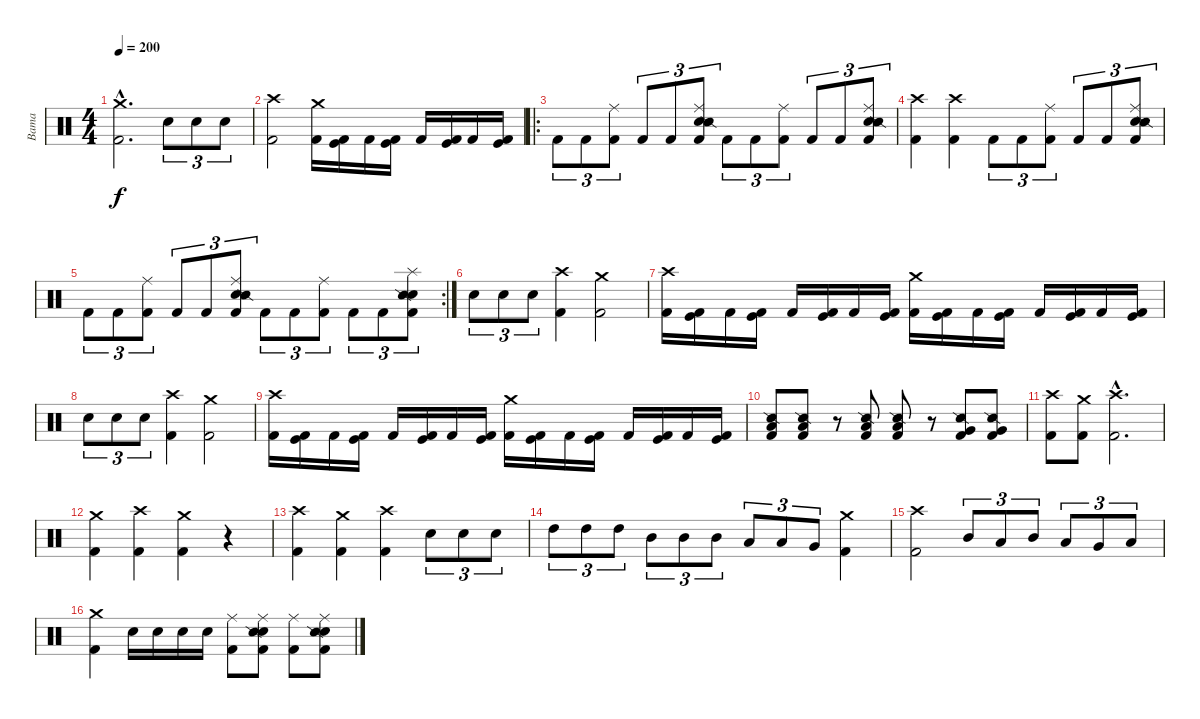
\track ("Bama" "Bama") {instrument percussion}
\staff {score}
\articulation defaults
\ts (4 4)
\tempo 200
\clef neutral
\ks c
("Crash medium (hit)"{hac} "Kick (hit) 2"{hac}).2{d dy f} "Electric Snare (hit)".8{tu (3 2)} "Electric Snare (hit)".8{tu (3 2)} "Electric Snare (hit)".8{tu (3 2)} |
("Crash high (hit)" "Kick (hit) 2").2 ("Crash medium (hit)" "Kick (hit) 2").16 ("Kick (hit)" "Kick (hit) 2").16 "Kick (hit) 2".16 ("Kick (hit)" "Kick (hit) 2").16 "Kick (hit) 2".16 ("Kick (hit)" "Kick (hit) 2").16 "Kick (hit) 2".16 ("Kick (hit)" "Kick (hit) 2").16 |
\ro "Kick (hit) 2".8{tu (3 2)} "Kick (hit) 2".8{tu (3 2)}
("Ride (middle)" "Kick (hit) 2").8{tu (3 2)} "Kick (hit) 2".8{tu (3 2)} "Kick (hit) 2".8{tu (3 2)} ("Ride (middle)" "Electric Snare (hit)" "Snare (side stick) 2" "Kick (hit) 2").8{tu (3 2)} "Kick (hit) 2".8{tu (3 2)} "Kick (hit) 2".8{tu (3 2)} ("Ride (middle)" "Kick (hit) 2").8{tu (3 2)} "Kick (hit) 2".8{tu (3 2)} "Kick (hit) 2".8{tu (3 2)} ("Ride (middle)" "Electric Snare (hit)" "Snare (side stick) 2" "Kick (hit) 2").8{tu (3 2)} |
("Crash high (hit)" "Kick (hit) 2").4 ("Crash high (hit)" "Kick (hit) 2").4 "Kick (hit) 2".8{tu (3 2)} "Kick (hit) 2".8{tu (3 2)} ("Ride (middle)" "Kick (hit) 2").8{tu (3 2)} "Kick (hit) 2".8{tu (3 2)} "Kick (hit) 2".8{tu (3 2)} ("Ride (middle)" "Electric Snare (hit)" "Snare (side stick) 2" "Kick (hit) 2").8{tu (3 2)} |
\rc 2 "Kick (hit) 2".8{tu (3 2)} "Kick (hit) 2".8{tu (3 2)}
("Ride (middle)" "Kick (hit) 2").8{tu (3 2)} "Kick (hit) 2".8{tu (3 2)} "Kick (hit) 2".8{tu (3 2)} ("Ride (middle)" "Electric Snare (hit)" "Snare (side stick) 2" "Kick (hit) 2").8{tu (3 2)} "Kick (hit) 2".8{tu (3 2)} "Kick (hit) 2".8{tu (3 2)} ("Ride (middle)" "Kick (hit) 2").8{tu (3 2)} "Kick (hit) 2".8{tu (3 2)} "Kick (hit) 2".8{tu (3 2)} ("Splash (hit)" "Electric Snare (hit)" "Snare (side stick) 2" "Kick (hit) 2").8{tu (3 2)} |
"Electric Snare (hit)".8{tu (3 2)} "Electric Snare (hit)".8{tu (3 2)} "Electric Snare (hit)".8{tu (3 2)} ("Crash high (hit)" "Kick (hit) 2").4 ("Crash medium (hit)" "Kick (hit) 2").2 |
("Crash high (hit)" "Kick (hit) 2").16 ("Kick (hit)" "Kick (hit) 2").16 "Kick (hit) 2".16 ("Kick (hit)" "Kick (hit) 2").16 "Kick (hit) 2".16 ("Kick (hit)" "Kick (hit) 2").16 "Kick (hit) 2".16 ("Kick (hit)" "Kick (hit) 2").16 ("Crash medium (hit)" "Kick (hit) 2").16 ("Kick (hit)" "Kick (hit) 2").16 "Kick (hit) 2".16 ("Kick (hit)" "Kick (hit) 2").16 "Kick (hit) 2".16 ("Kick (hit)" "Kick (hit) 2").16 "Kick (hit) 2".16 ("Kick (hit)" "Kick (hit) 2").16 |
"Electric Snare (hit)".8{tu (3 2)} "Electric Snare (hit)".8{tu (3 2)} "Electric Snare (hit)".8{tu (3 2)} ("Crash high (hit)" "Kick (hit) 2").4 ("Crash medium (hit)" "Kick (hit) 2").2 |
("Crash high (hit)" "Kick (hit) 2").16 ("Kick (hit)" "Kick (hit) 2").16 "Kick (hit) 2".16 ("Kick (hit)" "Kick (hit) 2").16 "Kick (hit) 2".16 ("Kick (hit)" "Kick (hit) 2").16 "Kick (hit) 2".16 ("Kick (hit)" "Kick (hit) 2").16 ("Crash medium (hit)" "Kick (hit) 2").16 ("Kick (hit)" "Kick (hit) 2").16 "Kick (hit) 2".16 ("Kick (hit)" "Kick (hit) 2").16 "Kick (hit) 2".16 ("Kick (hit)" "Kick (hit) 2").16 "Kick (hit) 2".16 ("Kick (hit)" "Kick (hit) 2").16 |
("Low Tom (hit)" "Snare (side stick) 2" "Kick (hit) 2").8 ("Low Tom (hit)" "Snare (side stick) 2" "Kick (hit) 2").8 r.8 ("Low Floor Tom (hit)" "Snare (side stick) 2" "Kick (hit) 2").8 ("Low Floor Tom (hit)" "Snare (side stick) 2" "Kick (hit) 2").8 r.8 ("Very Low Tom (hit)" "Snare (side stick) 2" "Kick (hit) 2").8 ("Very Low Tom (hit)" "Snare (side stick) 2" "Kick (hit) 2").8 |
("Crash high (hit)" "Kick (hit) 2").8 ("Crash medium (hit)" "Kick (hit) 2").8 ("Crash high (hit)"{hac} "Kick (hit) 2"{hac}).2{d} |
("Crash medium (hit)" "Kick (hit) 2").4 ("Crash high (hit)" "Kick (hit) 2").4 ("Crash medium (hit)" "Kick (hit) 2").4 r.4 |
("Crash high (hit)" "Kick (hit) 2").4 ("Crash medium (hit)" "Kick (hit) 2").4 ("Crash high (hit)" "Kick (hit) 2").4 "Electric Snare (hit)".8{tu (3 2)} "Electric Snare (hit)".8{tu (3 2)} "Electric Snare (hit)".8{tu (3 2)} |
"High Tom (hit)".8{tu (3 2)} "High Tom (hit)".8{tu (3 2)} "High Tom (hit)".8{tu (3 2)} "Mid Tom (hit)".8{tu (3 2)} "Mid Tom (hit)".8{tu (3 2)} "Mid Tom (hit)".8{tu (3 2)} "Low Tom (hit)".8{tu (3 2)} "Low Tom (hit)".8{tu (3 2)} "Very Low Tom (hit)".8{tu (3 2)} ("Crash medium (hit)" "Kick (hit) 2").4 |
("Crash high (hit)" "Kick (hit) 2").2 "Mid Tom (hit)".8{tu (3 2)} "Low Tom (hit)".8{tu (3 2)} "Mid Tom (hit)".8{tu (3 2)} "Low Tom (hit)".8{tu (3 2)} "Very Low Tom (hit)".8{tu (3 2)} "Low Floor Tom (hit)".8{tu (3 2)} |
("Crash medium (hit)" "Kick (hit) 2").4 "Electric Snare (hit)".16 "Electric Snare (hit)".16 "Electric Snare (hit)".16 "Electric Snare (hit)".16 ("Ride (middle)" "Kick (hit) 2").8 ("Ride (middle)" "Electric Snare (hit)" "Snare (side stick) 2" "Kick (hit) 2").8 ("Ride (middle)" "Kick (hit) 2").8 ("Ride (middle)" "Electric Snare (hit)" "Snare (side stick) 2" "Kick (hit) 2").8
